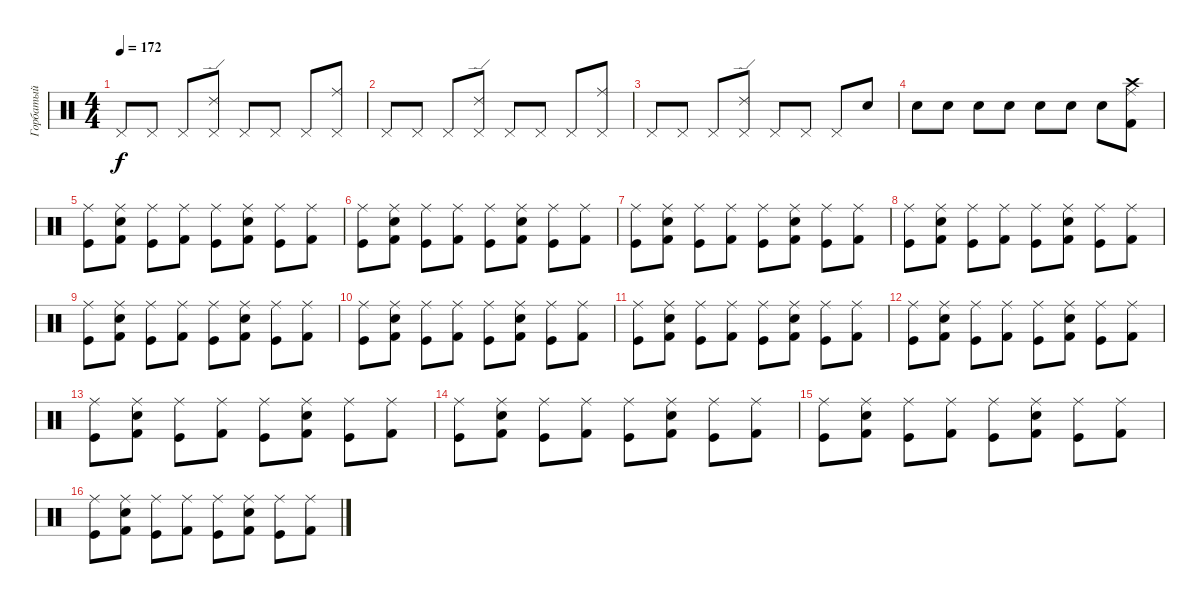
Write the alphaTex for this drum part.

\track ("Горбатый" "Горбатый") {instrument percussion}
\staff {score}
\articulation defaults
\ts (4 4)
\tempo 172
\clef neutral
\ks c "Pedal Hi-Hat (hit)".8{dy f} "Pedal Hi-Hat (hit)".8 "Pedal Hi-Hat (hit)".8
("Ride (edge) 2" "Pedal Hi-Hat (hit)").8 "Pedal Hi-Hat (hit)".8 "Pedal Hi-Hat (hit)".8 "Pedal Hi-Hat (hit)".8 ("Ride (middle)" "Pedal Hi-Hat (hit)").8 |
"Pedal Hi-Hat (hit)".8 "Pedal Hi-Hat (hit)".8 "Pedal Hi-Hat (hit)".8 ("Ride (edge) 2" "Pedal Hi-Hat (hit)").8 "Pedal Hi-Hat (hit)".8 "Pedal Hi-Hat (hit)".8 "Pedal Hi-Hat (hit)".8 ("Ride (middle)" "Pedal Hi-Hat (hit)").8 |
"Pedal Hi-Hat (hit)".8 "Pedal Hi-Hat (hit)".8 "Pedal Hi-Hat (hit)".8 ("Ride (edge) 2" "Pedal Hi-Hat (hit)").8 "Pedal Hi-Hat (hit)".8 "Pedal Hi-Hat (hit)".8 "Pedal Hi-Hat (hit)".8 "Electric Snare (hit)".8 |
"Electric Snare (hit)".8 "Electric Snare (hit)".8 "Electric Snare (hit)".8 "Electric Snare (hit)".8 "Electric Snare (hit)".8 "Electric Snare (hit)".8 "Electric Snare (hit)".8 ("Crash high (hit)" "Ride (middle)" "Kick (hit) 2").8 |
("Ride (middle)" "Kick (hit)").8 ("Electric Snare (hit)" "Ride (middle)" "Kick (hit) 2").8 ("Ride (middle)" "Kick (hit)").8 ("Ride (middle)" "Kick (hit) 2").8 ("Ride (middle)" "Kick (hit)").8 ("Electric Snare (hit)" "Ride (middle)" "Kick (hit) 2").8 ("Ride (middle)" "Kick (hit)").8 ("Ride (middle)" "Kick (hit) 2").8 |
("Ride (middle)" "Kick (hit)").8 ("Electric Snare (hit)" "Ride (middle)" "Kick (hit) 2").8 ("Ride (middle)" "Kick (hit)").8 ("Ride (middle)" "Kick (hit) 2").8 ("Ride (middle)" "Kick (hit)").8 ("Electric Snare (hit)" "Ride (middle)" "Kick (hit) 2").8 ("Ride (middle)" "Kick (hit)").8 ("Ride (middle)" "Kick (hit) 2").8 |
("Ride (middle)" "Kick (hit)").8 ("Electric Snare (hit)" "Ride (middle)" "Kick (hit) 2").8 ("Ride (middle)" "Kick (hit)").8 ("Ride (middle)" "Kick (hit) 2").8 ("Ride (middle)" "Kick (hit)").8 ("Electric Snare (hit)" "Ride (middle)" "Kick (hit) 2").8 ("Ride (middle)" "Kick (hit)").8 ("Ride (middle)" "Kick (hit) 2").8 |
("Ride (middle)" "Kick (hit)").8 ("Electric Snare (hit)" "Ride (middle)" "Kick (hit) 2").8 ("Ride (middle)" "Kick (hit)").8 ("Ride (middle)" "Kick (hit) 2").8 ("Ride (middle)" "Kick (hit)").8 ("Electric Snare (hit)" "Ride (middle)" "Kick (hit) 2").8 ("Ride (middle)" "Kick (hit)").8 ("Ride (middle)" "Kick (hit) 2").8 |
("Ride (middle)" "Kick (hit)").8 ("Electric Snare (hit)" "Ride (middle)" "Kick (hit) 2").8 ("Ride (middle)" "Kick (hit)").8 ("Ride (middle)" "Kick (hit) 2").8 ("Ride (middle)" "Kick (hit)").8 ("Electric Snare (hit)" "Ride (middle)" "Kick (hit) 2").8 ("Ride (middle)" "Kick (hit)").8 ("Ride (middle)" "Kick (hit) 2").8 |
("Ride (middle)" "Kick (hit)").8 ("Electric Snare (hit)" "Ride (middle)" "Kick (hit) 2").8 ("Ride (middle)" "Kick (hit)").8 ("Ride (middle)" "Kick (hit) 2").8 ("Ride (middle)" "Kick (hit)").8 ("Electric Snare (hit)" "Ride (middle)" "Kick (hit) 2").8 ("Ride (middle)" "Kick (hit)").8 ("Ride (middle)" "Kick (hit) 2").8 |
("Ride (middle)" "Kick (hit)").8 ("Electric Snare (hit)" "Ride (middle)" "Kick (hit) 2").8 ("Ride (middle)" "Kick (hit)").8 ("Ride (middle)" "Kick (hit) 2").8 ("Ride (middle)" "Kick (hit)").8 ("Electric Snare (hit)" "Ride (middle)" "Kick (hit) 2").8 ("Ride (middle)" "Kick (hit)").8 ("Ride (middle)" "Kick (hit) 2").8 |
("Ride (middle)" "Kick (hit)").8 ("Electric Snare (hit)" "Ride (middle)" "Kick (hit) 2").8 ("Ride (middle)" "Kick (hit)").8 ("Ride (middle)" "Kick (hit) 2").8 ("Ride (middle)" "Kick (hit)").8 ("Electric Snare (hit)" "Ride (middle)" "Kick (hit) 2").8 ("Ride (middle)" "Kick (hit)").8 ("Ride (middle)" "Kick (hit) 2").8 |
("Ride (middle)" "Kick (hit)").8 ("Electric Snare (hit)" "Ride (middle)" "Kick (hit) 2").8 ("Ride (middle)" "Kick (hit)").8 ("Ride (middle)" "Kick (hit) 2").8 ("Ride (middle)" "Kick (hit)").8 ("Electric Snare (hit)" "Ride (middle)" "Kick (hit) 2").8 ("Ride (middle)" "Kick (hit)").8 ("Ride (middle)" "Kick (hit) 2").8 |
("Ride (middle)" "Kick (hit)").8 ("Electric Snare (hit)" "Ride (middle)" "Kick (hit) 2").8 ("Ride (middle)" "Kick (hit)").8 ("Ride (middle)" "Kick (hit) 2").8 ("Ride (middle)" "Kick (hit)").8 ("Electric Snare (hit)" "Ride (middle)" "Kick (hit) 2").8 ("Ride (middle)" "Kick (hit)").8 ("Ride (middle)" "Kick (hit) 2").8 |
("Ride (middle)" "Kick (hit)").8 ("Electric Snare (hit)" "Ride (middle)" "Kick (hit) 2").8 ("Ride (middle)" "Kick (hit)").8 ("Ride (middle)" "Kick (hit) 2").8 ("Ride (middle)" "Kick (hit)").8 ("Electric Snare (hit)" "Ride (middle)" "Kick (hit) 2").8 ("Ride (middle)" "Kick (hit)").8 ("Ride (middle)" "Kick (hit) 2").8 |
("Ride (middle)" "Kick (hit)").8 ("Electric Snare (hit)" "Ride (middle)" "Kick (hit) 2").8 ("Ride (middle)" "Kick (hit)").8 ("Ride (middle)" "Kick (hit) 2").8 ("Ride (middle)" "Kick (hit)").8 ("Electric Snare (hit)" "Ride (middle)" "Kick (hit) 2").8 ("Ride (middle)" "Kick (hit)").8 ("Ride (middle)" "Kick (hit) 2").8
